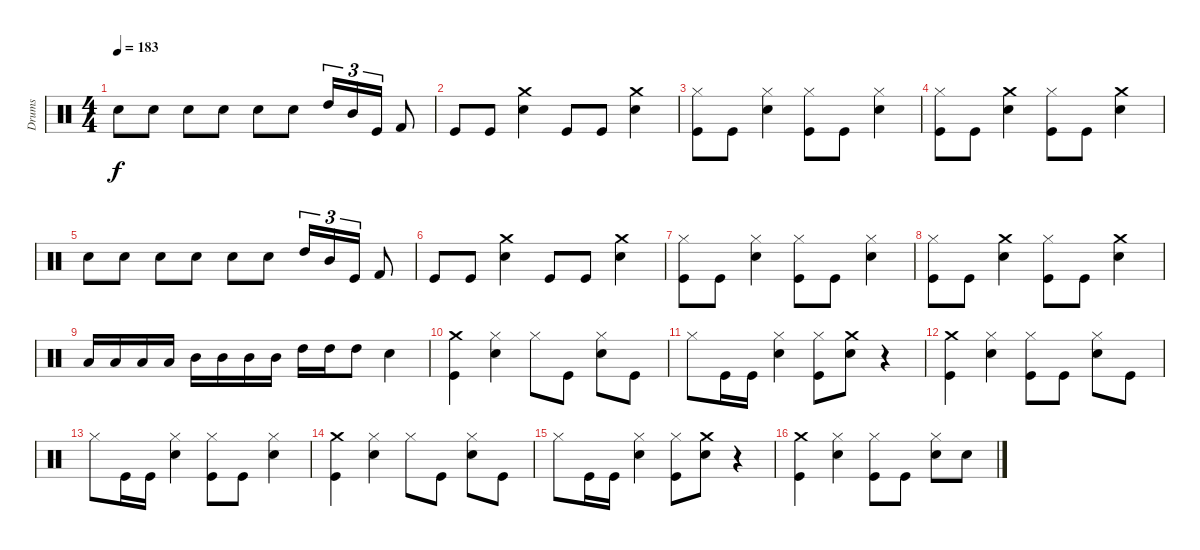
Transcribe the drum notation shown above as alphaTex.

\track ("Drums" "Drums") {instrument percussion}
\staff {score}
\articulation defaults
\ts (4 4)
\tempo 183
\clef neutral
\ks c "Snare (hit) 2".8{dy f} "Snare (hit) 2".8 "Snare (hit) 2".8 "Snare (hit) 2".8 "Snare (hit) 2".8 "Snare (hit) 2".8 "High Tom (hit)".16{tu (3 2)} "Mid Tom (hit)".16{tu (3 2)} "Kick (hit)".16{tu (3 2)} "Kick (hit) 2".8
|
"Kick (hit)".8 "Kick (hit)".8 ("Crash medium (hit)" "Snare (hit) 2").4 "Kick (hit)".8 "Kick (hit)".8 ("Crash medium (hit)" "Snare (hit) 2").4 |
("Kick (hit)" "Hi-Hat (closed)").8 "Kick (hit)".8 ("Snare (hit) 2" "Hi-Hat (closed)").4 ("Kick (hit)" "Hi-Hat (closed)").8 "Kick (hit)".8 ("Snare (hit) 2" "Hi-Hat (closed)").4 |
("Kick (hit)" "Hi-Hat (closed)").8 "Kick (hit)".8 ("Snare (hit) 2" "Crash medium (hit)").4 ("Kick (hit)" "Hi-Hat (closed)").8 "Kick (hit)".8 ("Crash medium (hit)" "Snare (hit) 2").4 |
"Snare (hit) 2".8 "Snare (hit) 2".8 "Snare (hit) 2".8 "Snare (hit) 2".8 "Snare (hit) 2".8 "Snare (hit) 2".8 "High Tom (hit)".16{tu (3 2)} "Mid Tom (hit)".16{tu (3 2)} "Kick (hit)".16{tu (3 2)} "Kick (hit) 2".8 |
"Kick (hit)".8 "Kick (hit)".8 ("Crash medium (hit)" "Snare (hit) 2").4 "Kick (hit)".8 "Kick (hit)".8 ("Crash medium (hit)" "Snare (hit) 2").4 |
("Kick (hit)" "Hi-Hat (closed)").8 "Kick (hit)".8 ("Snare (hit) 2" "Hi-Hat (closed)").4 ("Kick (hit)" "Hi-Hat (closed)").8 "Kick (hit)".8 ("Snare (hit) 2" "Hi-Hat (closed)").4 |
("Kick (hit)" "Hi-Hat (closed)").8 "Kick (hit)".8 ("Snare (hit) 2" "Crash medium (hit)").4 ("Kick (hit)" "Hi-Hat (closed)").8 "Kick (hit)".8 ("Crash medium (hit)" "Snare (hit) 2").4 |
"Low Tom (hit)".16 "Low Tom (hit)".16 "Low Tom (hit)".16 "Low Tom (hit)".16 "Mid Tom (hit)".16 "Mid Tom (hit)".16 "Mid Tom (hit)".16 "Mid Tom (hit)".16 "High Tom (hit)".16 "High Tom (hit)".16 "High Tom (hit)".8 "Snare (hit) 2".4 |
("Kick (hit)" "Crash medium (hit)").4 ("Hi-Hat (closed)" "Snare (hit) 2").4 "Hi-Hat (closed)".8 "Kick (hit)".8 ("Snare (hit) 2" "Hi-Hat (closed)").8 "Kick (hit)".8 |
"Hi-Hat (closed)".8 "Kick (hit)".16 "Kick (hit)".16 ("Snare (hit) 2" "Hi-Hat (closed)").4 ("Hi-Hat (closed)" "Kick (hit)").8 ("Crash medium (hit)" "Snare (hit) 2").8 r.4 |
("Kick (hit)" "Crash medium (hit)").4 ("Hi-Hat (closed)" "Snare (hit) 2").4 ("Hi-Hat (closed)" "Kick (hit)").8 "Kick (hit)".8 ("Snare (hit) 2" "Hi-Hat (closed)").8 "Kick (hit)".8 |
"Hi-Hat (closed)".8 "Kick (hit)".16 "Kick (hit)".16 ("Snare (hit) 2" "Hi-Hat (closed)").4 ("Hi-Hat (closed)" "Kick (hit)").8 "Kick (hit)".8 ("Snare (hit) 2" "Hi-Hat (closed)").4 |
("Kick (hit)" "Crash medium (hit)").4 ("Hi-Hat (closed)" "Snare (hit) 2").4 "Hi-Hat (closed)".8 "Kick (hit)".8 ("Snare (hit) 2" "Hi-Hat (closed)").8 "Kick (hit)".8 |
"Hi-Hat (closed)".8 "Kick (hit)".16 "Kick (hit)".16 ("Snare (hit) 2" "Hi-Hat (closed)").4 ("Hi-Hat (closed)" "Kick (hit)").8 ("Crash medium (hit)" "Snare (hit) 2").8 r.4 |
("Crash medium (hit)" "Kick (hit)").4 ("Snare (hit) 2" "Hi-Hat (closed)").4 ("Hi-Hat (closed)" "Kick (hit)").8 "Kick (hit)".8 ("Hi-Hat (closed)" "Snare (hit) 2").8 "Snare (hit) 2".8
